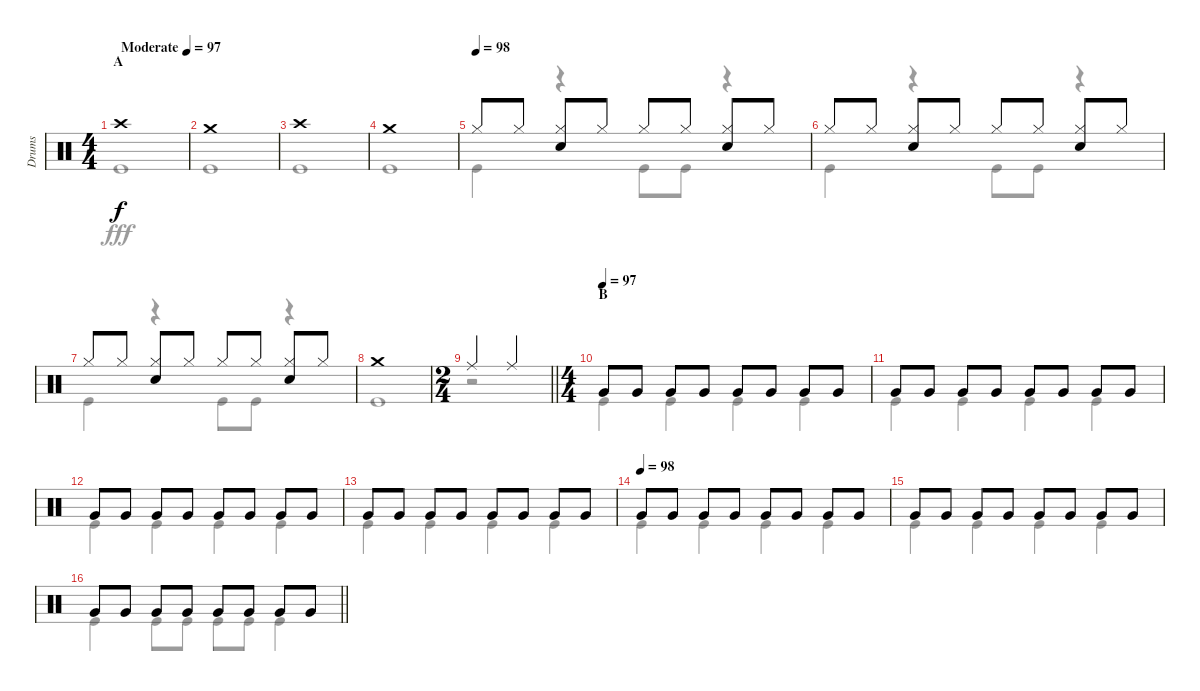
\track ("Drums" "Drums") {instrument percussion}
\staff {score}
\articulation defaults
\voice
\ts (4 4)
\section ("" "A")
\tempo (97 "Moderate")
\clef neutral
\ks c "Crash high (hit)".1{dy f}
|
"Crash medium (hit)".1 |
"Crash high (hit)".1 |
"Crash medium (hit)".1 |
\tempo (98)
"Hi-Hat (closed)".8 "Hi-Hat (closed)".8 ("Hi-Hat (closed)" "Snare (hit) 2").8 "Hi-Hat (closed)".8 "Hi-Hat (closed)".8 "Hi-Hat (closed)".8 ("Hi-Hat (closed)" "Snare (hit) 2").8 "Hi-Hat (closed)".8 |
"Hi-Hat (closed)".8 "Hi-Hat (closed)".8 ("Hi-Hat (closed)" "Snare (hit) 2").8 "Hi-Hat (closed)".8 "Hi-Hat (closed)".8 "Hi-Hat (closed)".8 ("Hi-Hat (closed)" "Snare (hit) 2").8 "Hi-Hat (closed)".8 |
"Hi-Hat (closed)".8 "Hi-Hat (closed)".8 ("Hi-Hat (closed)" "Snare (hit) 2").8 "Hi-Hat (closed)".8 "Hi-Hat (closed)".8 "Hi-Hat (closed)".8 ("Hi-Hat (closed)" "Snare (hit) 2").8 "Hi-Hat (closed)".8 |
"Crash medium (hit)".1 |
\ts (2 4)
\barLineRight lightlight "Ride (middle)".4 "Ride (middle)".4
|
\ts (4 4)
\section ("" "B")
\tempo (97)
"Very Low Tom (hit)".8 "Very Low Tom (hit)".8 "Very Low Tom (hit)".8 "Very Low Tom (hit)".8 "Very Low Tom (hit)".8 "Very Low Tom (hit)".8 "Very Low Tom (hit)".8 "Very Low Tom (hit)".8 |
"Very Low Tom (hit)".8 "Very Low Tom (hit)".8 "Very Low Tom (hit)".8 "Very Low Tom (hit)".8 "Very Low Tom (hit)".8 "Very Low Tom (hit)".8 "Very Low Tom (hit)".8 "Very Low Tom (hit)".8 |
"Very Low Tom (hit)".8 "Very Low Tom (hit)".8 "Very Low Tom (hit)".8 "Very Low Tom (hit)".8 "Very Low Tom (hit)".8 "Very Low Tom (hit)".8 "Very Low Tom (hit)".8 "Very Low Tom (hit)".8 |
"Very Low Tom (hit)".8 "Very Low Tom (hit)".8 "Very Low Tom (hit)".8 "Very Low Tom (hit)".8 "Very Low Tom (hit)".8 "Very Low Tom (hit)".8 "Very Low Tom (hit)".8 "Very Low Tom (hit)".8 |
\tempo (98)
"Very Low Tom (hit)".8 "Very Low Tom (hit)".8 "Very Low Tom (hit)".8 "Very Low Tom (hit)".8 "Very Low Tom (hit)".8 "Very Low Tom (hit)".8 "Very Low Tom (hit)".8 "Very Low Tom (hit)".8 |
"Very Low Tom (hit)".8 "Very Low Tom (hit)".8 "Very Low Tom (hit)".8 "Very Low Tom (hit)".8 "Very Low Tom (hit)".8 "Very Low Tom (hit)".8 "Very Low Tom (hit)".8 "Very Low Tom (hit)".8 |
\barLineRight lightlight "Very Low Tom (hit)".8 "Very Low Tom (hit)".8 "Very Low Tom (hit)".8 "Very Low Tom (hit)".8 "Very Low Tom (hit)".8 "Very Low Tom (hit)".8 "Very Low Tom (hit)".8 "Very Low Tom (hit)".8
\voice
\clef neutral
\ottava regular
\simile none
\ks c "Kick (hit)".1{dy fff}
|
"Kick (hit)".1 |
"Kick (hit)".1 |
"Kick (hit)".1 |
"Kick (hit)".4 r.4 "Kick (hit)".8 "Kick (hit)".8 r.4 |
"Kick (hit)".4 r.4 "Kick (hit)".8 "Kick (hit)".8 r.4 |
"Kick (hit)".4 r.4 "Kick (hit)".8 "Kick (hit)".8 r.4 |
"Kick (hit)".1 |
\barLineRight lightlight
r.2 |
"Kick (hit)".4 "Kick (hit)".4 "Kick (hit)".4 "Kick (hit)".4 |
"Kick (hit)".4 "Kick (hit)".4 "Kick (hit)".4 "Kick (hit)".4 |
"Kick (hit)".4 "Kick (hit)".4 "Kick (hit)".4 "Kick (hit)".4 |
"Kick (hit)".4 "Kick (hit)".4 "Kick (hit)".4 "Kick (hit)".4 |
"Kick (hit)".4 "Kick (hit)".4 "Kick (hit)".4 "Kick (hit)".4 |
"Kick (hit)".4 "Kick (hit)".4 "Kick (hit)".4 "Kick (hit)".4 |
\barLineRight lightlight "Kick (hit)".4 "Kick (hit)".8 "Kick (hit)".8 "Kick (hit)".8 "Kick (hit)".8 "Kick (hit)".4
